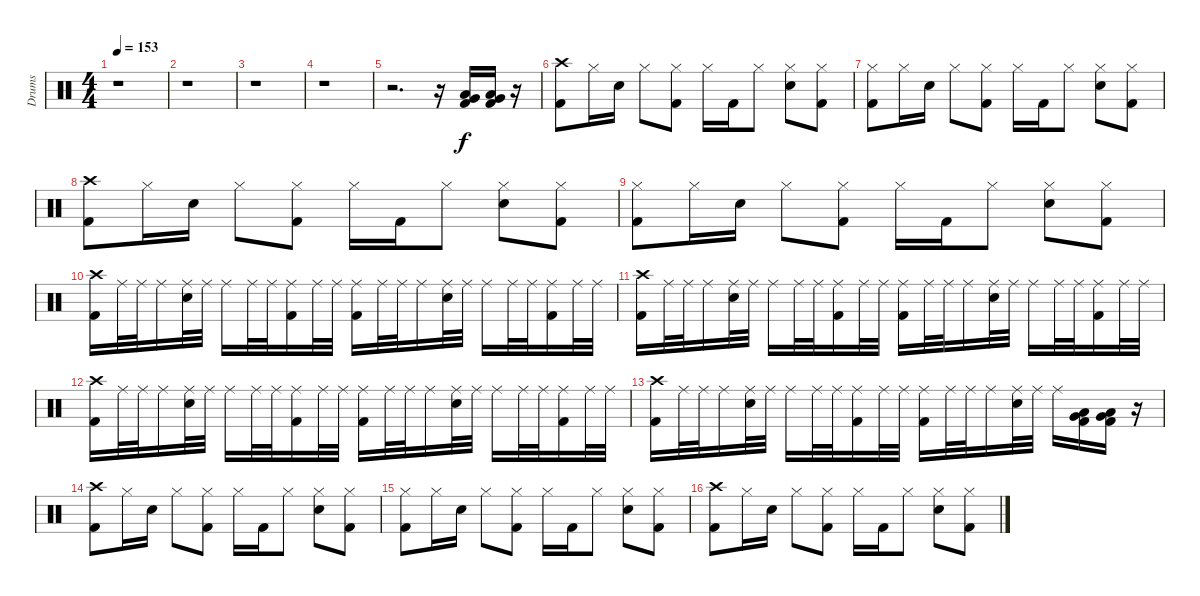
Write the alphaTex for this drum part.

\track ("Drums" "Drums") {instrument percussion}
\staff {score}
\articulation defaults
\ts (4 4)
\tempo 153
\tempo 63
\tempo 153
\clef neutral
\ks c
r.1{dy f} |
r.1 |
r.1 |
r.1 |
r.2{d} r.16 ("Very Low Tom (hit)" "Low Tom (hit)" "Kick (hit) 2").16 ("Very Low Tom (hit)" "Low Tom (hit)" "Kick (hit) 2").16 r.16 |
("Crash high (hit)" "Kick (hit) 2").8 "Hi-Hat (closed)".16 "Electric Snare (hit)".16 "Hi-Hat (closed)".8 ("Hi-Hat (closed)" "Kick (hit) 2").8 "Hi-Hat (closed)".16 "Kick (hit) 2".16 "Hi-Hat (closed)".8 ("Hi-Hat (closed)" "Electric Snare (hit)").8 ("Hi-Hat (closed)" "Kick (hit) 2").8 |
("Hi-Hat (closed)" "Kick (hit) 2").8 "Hi-Hat (closed)".16 "Electric Snare (hit)".16 "Hi-Hat (closed)".8 ("Hi-Hat (closed)" "Kick (hit) 2").8 "Hi-Hat (closed)".16 "Kick (hit) 2".16 "Hi-Hat (closed)".8 ("Hi-Hat (closed)" "Electric Snare (hit)").8 ("Hi-Hat (closed)" "Kick (hit) 2").8 |
("Crash high (hit)" "Kick (hit) 2").8 "Hi-Hat (closed)".16 "Electric Snare (hit)".16 "Hi-Hat (closed)".8 ("Hi-Hat (closed)" "Kick (hit) 2").8 "Hi-Hat (closed)".16 "Kick (hit) 2".16 "Hi-Hat (closed)".8 ("Hi-Hat (closed)" "Electric Snare (hit)").8 ("Hi-Hat (closed)" "Kick (hit) 2").8 |
("Hi-Hat (closed)" "Kick (hit) 2").8 "Hi-Hat (closed)".16 "Electric Snare (hit)".16 "Hi-Hat (closed)".8 ("Hi-Hat (closed)" "Kick (hit) 2").8 "Hi-Hat (closed)".16 "Kick (hit) 2".16 "Hi-Hat (closed)".8 ("Hi-Hat (closed)" "Electric Snare (hit)").8 ("Hi-Hat (closed)" "Kick (hit) 2").8 |
("Crash high (hit)" "Kick (hit) 2").16 "Ride (middle)".32 "Ride (middle)".32 "Ride (middle)".16 ("Ride (middle)" "Electric Snare (hit)").32 "Ride (middle)".32 "Ride (middle)".16 "Ride (middle)".32 "Ride (middle)".32 ("Ride (middle)" "Kick (hit) 2").16 "Ride (middle)".32 "Ride (middle)".32 ("Ride (middle)" "Kick (hit) 2").16 "Ride (middle)".32 "Ride (middle)".32 "Ride (middle)".16 ("Ride (middle)" "Electric Snare (hit)").32 "Ride (middle)".32 "Ride (middle)".16 "Ride (middle)".32 "Ride (middle)".32 ("Ride (middle)" "Kick (hit) 2").16 "Ride (middle)".32 "Ride (middle)".32 |
("Crash high (hit)" "Kick (hit) 2").16 "Ride (middle)".32 "Ride (middle)".32 "Ride (middle)".16 ("Ride (middle)" "Electric Snare (hit)").32 "Ride (middle)".32 "Ride (middle)".16 "Ride (middle)".32 "Ride (middle)".32 ("Ride (middle)" "Kick (hit) 2").16 "Ride (middle)".32 "Ride (middle)".32 ("Ride (middle)" "Kick (hit) 2").16 "Ride (middle)".32 "Ride (middle)".32 "Ride (middle)".16 ("Ride (middle)" "Electric Snare (hit)").32 "Ride (middle)".32 "Ride (middle)".16 "Ride (middle)".32 "Ride (middle)".32 ("Ride (middle)" "Kick (hit) 2").16 "Ride (middle)".32 "Ride (middle)".32 |
("Crash high (hit)" "Kick (hit) 2").16 "Ride (middle)".32 "Ride (middle)".32 "Ride (middle)".16 ("Ride (middle)" "Electric Snare (hit)").32 "Ride (middle)".32 "Ride (middle)".16 "Ride (middle)".32 "Ride (middle)".32 ("Ride (middle)" "Kick (hit) 2").16 "Ride (middle)".32 "Ride (middle)".32 ("Ride (middle)" "Kick (hit) 2").16 "Ride (middle)".32 "Ride (middle)".32 "Ride (middle)".16 ("Ride (middle)" "Electric Snare (hit)").32 "Ride (middle)".32 "Ride (middle)".16 "Ride (middle)".32 "Ride (middle)".32 ("Ride (middle)" "Kick (hit) 2").16 "Ride (middle)".32 "Ride (middle)".32 |
("Crash high (hit)" "Kick (hit) 2").16 "Ride (middle)".32 "Ride (middle)".32 "Ride (middle)".16 ("Ride (middle)" "Electric Snare (hit)").32 "Ride (middle)".32 "Ride (middle)".16 "Ride (middle)".32 "Ride (middle)".32 ("Ride (middle)" "Kick (hit) 2").16 "Ride (middle)".32 "Ride (middle)".32 ("Ride (middle)" "Kick (hit) 2").16 "Ride (middle)".32 "Ride (middle)".32 "Ride (middle)".16 ("Ride (middle)" "Electric Snare (hit)").32 "Ride (middle)".32 "Ride (middle)".16 ("Very Low Tom (hit)" "Low Tom (hit)" "Kick (hit) 2").16 ("Very Low Tom (hit)" "Low Tom (hit)" "Kick (hit) 2").16 r.16 |
("Crash high (hit)" "Kick (hit) 2").8 "Hi-Hat (closed)".16 "Electric Snare (hit)".16 "Hi-Hat (closed)".8 ("Hi-Hat (closed)" "Kick (hit) 2").8 "Hi-Hat (closed)".16 "Kick (hit) 2".16 "Hi-Hat (closed)".8 ("Hi-Hat (closed)" "Electric Snare (hit)").8 ("Hi-Hat (closed)" "Kick (hit) 2").8 |
("Hi-Hat (closed)" "Kick (hit) 2").8 "Hi-Hat (closed)".16 "Electric Snare (hit)".16 "Hi-Hat (closed)".8 ("Hi-Hat (closed)" "Kick (hit) 2").8 "Hi-Hat (closed)".16 "Kick (hit) 2".16 "Hi-Hat (closed)".8 ("Hi-Hat (closed)" "Electric Snare (hit)").8 ("Hi-Hat (closed)" "Kick (hit) 2").8 |
("Crash high (hit)" "Kick (hit) 2").8 "Hi-Hat (closed)".16 "Electric Snare (hit)".16 "Hi-Hat (closed)".8 ("Hi-Hat (closed)" "Kick (hit) 2").8 "Hi-Hat (closed)".16 "Kick (hit) 2".16 "Hi-Hat (closed)".8 ("Hi-Hat (closed)" "Electric Snare (hit)").8 ("Hi-Hat (closed)" "Kick (hit) 2").8
